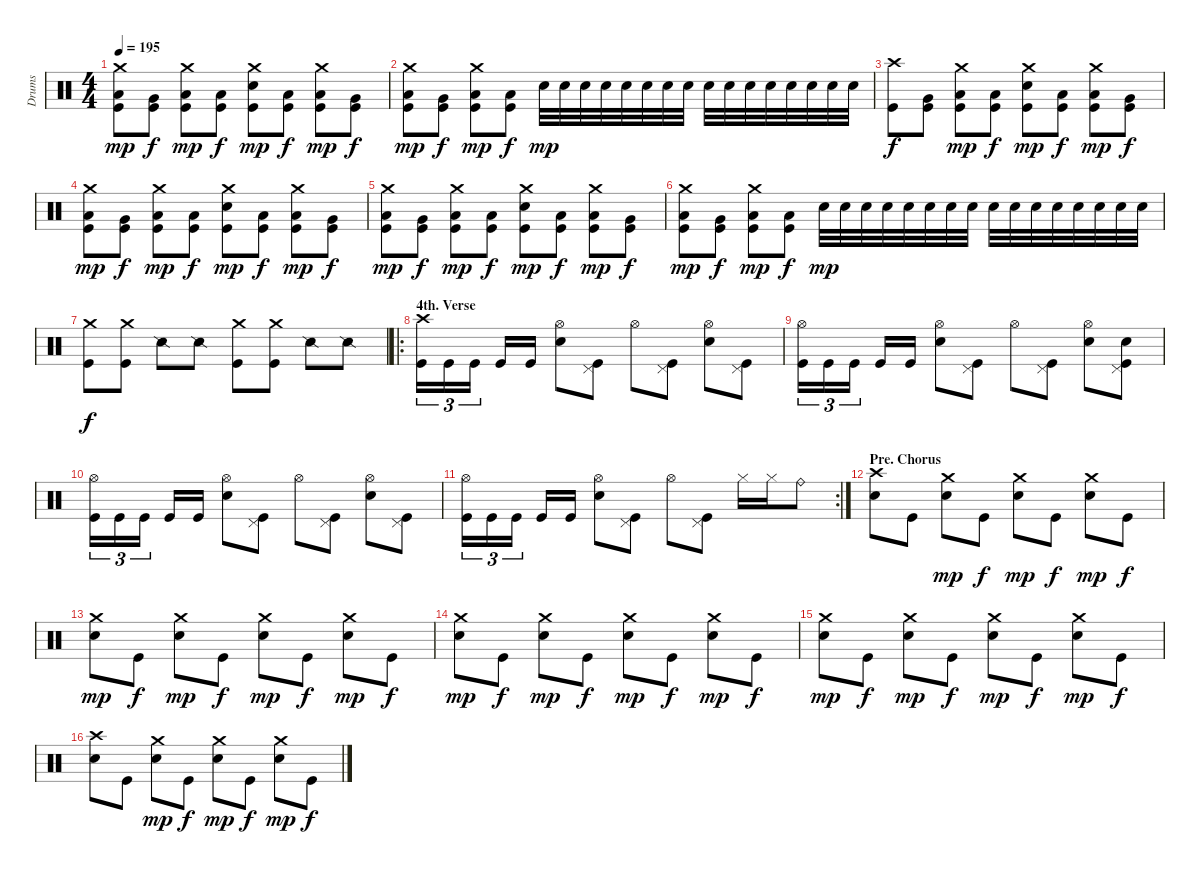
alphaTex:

\track ("Drums" "Drums") {instrument percussion}
\staff {score}
\articulation defaults
\ts (4 4)
\tempo 195
\clef neutral
\ks c
("Crash medium (hit)" "Low Tom (hit)" "Kick (hit)").8{dy mp} ("Very Low Tom (hit)" "Kick (hit)").8{dy f} ("Crash medium (hit)" "Low Floor Tom (hit)" "Kick (hit)").8{dy mp} ("Low Tom (hit)" "Kick (hit)").8{dy f} ("Crash medium (hit)" "Electric Snare (hit)" "Kick (hit)").8{dy mp} ("Low Tom (hit)" "Kick (hit)").8{dy f} ("Crash medium (hit)" "Low Floor Tom (hit)" "Kick (hit)").8{dy mp} ("Very Low Tom (hit)" "Kick (hit)").8{dy f} |
("Crash medium (hit)" "Low Tom (hit)" "Kick (hit)").8{dy mp} ("Very Low Tom (hit)" "Kick (hit)").8{dy f} ("Crash medium (hit)" "Low Floor Tom (hit)" "Kick (hit)").8{dy mp} ("Low Tom (hit)" "Kick (hit)").8{dy f} "Electric Snare (hit)".32{dy mp} "Electric Snare (hit)".32 "Electric Snare (hit)".32 "Electric Snare (hit)".32 "Electric Snare (hit)".32 "Electric Snare (hit)".32 "Electric Snare (hit)".32 "Electric Snare (hit)".32 "Electric Snare (hit)".32 "Electric Snare (hit)".32 "Electric Snare (hit)".32 "Electric Snare (hit)".32 "Electric Snare (hit)".32 "Electric Snare (hit)".32 "Electric Snare (hit)".32 "Electric Snare (hit)".32 |
("Crash high (hit)" "Kick (hit)").8{dy f} ("Very Low Tom (hit)" "Kick (hit)").8 ("Crash medium (hit)" "Low Floor Tom (hit)" "Kick (hit)").8{dy mp} ("Low Tom (hit)" "Kick (hit)").8{dy f} ("Crash medium (hit)" "Electric Snare (hit)" "Kick (hit)").8{dy mp} ("Low Tom (hit)" "Kick (hit)").8{dy f} ("Crash medium (hit)" "Low Floor Tom (hit)" "Kick (hit)").8{dy mp} ("Very Low Tom (hit)" "Kick (hit)").8{dy f} |
("Crash medium (hit)" "Low Tom (hit)" "Kick (hit)").8{dy mp} ("Very Low Tom (hit)" "Kick (hit)").8{dy f} ("Crash medium (hit)" "Low Floor Tom (hit)" "Kick (hit)").8{dy mp} ("Low Tom (hit)" "Kick (hit)").8{dy f} ("Crash medium (hit)" "Electric Snare (hit)" "Kick (hit)").8{dy mp} ("Low Tom (hit)" "Kick (hit)").8{dy f} ("Crash medium (hit)" "Low Floor Tom (hit)" "Kick (hit)").8{dy mp} ("Very Low Tom (hit)" "Kick (hit)").8{dy f} |
("Crash medium (hit)" "Low Tom (hit)" "Kick (hit)").8{dy mp} ("Very Low Tom (hit)" "Kick (hit)").8{dy f} ("Crash medium (hit)" "Low Floor Tom (hit)" "Kick (hit)").8{dy mp} ("Low Tom (hit)" "Kick (hit)").8{dy f} ("Crash medium (hit)" "Electric Snare (hit)" "Kick (hit)").8{dy mp} ("Low Tom (hit)" "Kick (hit)").8{dy f} ("Crash medium (hit)" "Low Floor Tom (hit)" "Kick (hit)").8{dy mp} ("Very Low Tom (hit)" "Kick (hit)").8{dy f} |
("Crash medium (hit)" "Low Tom (hit)" "Kick (hit)").8{dy mp} ("Very Low Tom (hit)" "Kick (hit)").8{dy f} ("Crash medium (hit)" "Low Floor Tom (hit)" "Kick (hit)").8{dy mp} ("Low Tom (hit)" "Kick (hit)").8{dy f} "Electric Snare (hit)".32{dy mp} "Electric Snare (hit)".32 "Electric Snare (hit)".32 "Electric Snare (hit)".32 "Electric Snare (hit)".32 "Electric Snare (hit)".32 "Electric Snare (hit)".32 "Electric Snare (hit)".32 "Electric Snare (hit)".32 "Electric Snare (hit)".32 "Electric Snare (hit)".32 "Electric Snare (hit)".32 "Electric Snare (hit)".32 "Electric Snare (hit)".32 "Electric Snare (hit)".32 "Electric Snare (hit)".32 |
("Crash medium (hit)" "Kick (hit)").8{dy f} ("Crash medium (hit)" "Kick (hit)").8 "Snare (side stick) 2".8 "Snare (side stick) 2".8 ("Crash medium (hit)" "Kick (hit)").8 ("Crash medium (hit)" "Kick (hit)").8 "Snare (side stick) 2".8 "Snare (side stick) 2".8 |
\ro
\section ("" "4th. Verse")
("Crash high (hit)" "Kick (hit)").16{tu (3 2)} "Kick (hit)".16{tu (3 2)} "Kick (hit)".16{tu (3 2)} "Kick (hit)".16 "Kick (hit)".16 ("Hi-Hat (open)" "Electric Snare (hit)").8 ("Pedal Hi-Hat (hit)" "Kick (hit)").8 "Hi-Hat (open)".8 ("Pedal Hi-Hat (hit)" "Kick (hit)").8 ("Hi-Hat (open)" "Electric Snare (hit)").8 ("Pedal Hi-Hat (hit)" "Kick (hit)").8 |
("Hi-Hat (open)" "Kick (hit)").16{tu (3 2)} "Kick (hit)".16{tu (3 2)} "Kick (hit)".16{tu (3 2)} "Kick (hit)".16 "Kick (hit)".16 ("Hi-Hat (open)" "Electric Snare (hit)").8 ("Pedal Hi-Hat (hit)" "Kick (hit)").8 "Hi-Hat (open)".8 ("Pedal Hi-Hat (hit)" "Kick (hit)").8 ("Hi-Hat (open)" "Electric Snare (hit)").8 ("Pedal Hi-Hat (hit)" "Electric Snare (hit)" "Kick (hit)").8 |
("Hi-Hat (open)" "Kick (hit)").16{tu (3 2)} "Kick (hit)".16{tu (3 2)} "Kick (hit)".16{tu (3 2)} "Kick (hit)".16 "Kick (hit)".16 ("Hi-Hat (open)" "Electric Snare (hit)").8 ("Pedal Hi-Hat (hit)" "Kick (hit)").8 "Hi-Hat (open)".8 ("Pedal Hi-Hat (hit)" "Kick (hit)").8 ("Hi-Hat (open)" "Electric Snare (hit)").8 ("Pedal Hi-Hat (hit)" "Kick (hit)").8 |
\rc 2
("Hi-Hat (open)" "Kick (hit)").16{tu (3 2)} "Kick (hit)".16{tu (3 2)} "Kick (hit)".16{tu (3 2)} "Kick (hit)".16 "Kick (hit)".16 ("Hi-Hat (open)" "Electric Snare (hit)").8 ("Pedal Hi-Hat (hit)" "Kick (hit)").8 "Hi-Hat (open)".8 ("Pedal Hi-Hat (hit)" "Kick (hit)").8 "Hi-Hat (closed)".16 "Hi-Hat (closed)".16 "Ride (bell)".8 |
\section ("" "Pre. Chorus")
("Crash high (hit)" "Electric Snare (hit)").8 "Kick (hit)".8 ("Crash medium (hit)" "Electric Snare (hit)").8{dy mp} "Kick (hit)".8{dy f} ("Crash medium (hit)" "Electric Snare (hit)").8{dy mp} "Kick (hit)".8{dy f} ("Crash medium (hit)" "Electric Snare (hit)").8{dy mp} "Kick (hit)".8{dy f} |
("Crash medium (hit)" "Electric Snare (hit)").8{dy mp} "Kick (hit)".8{dy f} ("Crash medium (hit)" "Electric Snare (hit)").8{dy mp} "Kick (hit)".8{dy f} ("Crash medium (hit)" "Electric Snare (hit)").8{dy mp} "Kick (hit)".8{dy f} ("Crash medium (hit)" "Electric Snare (hit)").8{dy mp} "Kick (hit)".8{dy f} |
("Crash medium (hit)" "Electric Snare (hit)").8{dy mp} "Kick (hit)".8{dy f} ("Crash medium (hit)" "Electric Snare (hit)").8{dy mp} "Kick (hit)".8{dy f} ("Crash medium (hit)" "Electric Snare (hit)").8{dy mp} "Kick (hit)".8{dy f} ("Crash medium (hit)" "Electric Snare (hit)").8{dy mp} "Kick (hit)".8{dy f} |
("Crash medium (hit)" "Electric Snare (hit)").8{dy mp} "Kick (hit)".8{dy f} ("Crash medium (hit)" "Electric Snare (hit)").8{dy mp} "Kick (hit)".8{dy f} ("Crash medium (hit)" "Electric Snare (hit)").8{dy mp} "Kick (hit)".8{dy f} ("Crash medium (hit)" "Electric Snare (hit)").8{dy mp} "Kick (hit)".8{dy f} |
("Crash high (hit)" "Electric Snare (hit)").8 "Kick (hit)".8 ("Crash medium (hit)" "Electric Snare (hit)").8{dy mp} "Kick (hit)".8{dy f} ("Crash medium (hit)" "Electric Snare (hit)").8{dy mp} "Kick (hit)".8{dy f} ("Crash medium (hit)" "Electric Snare (hit)").8{dy mp} "Kick (hit)".8{dy f}
